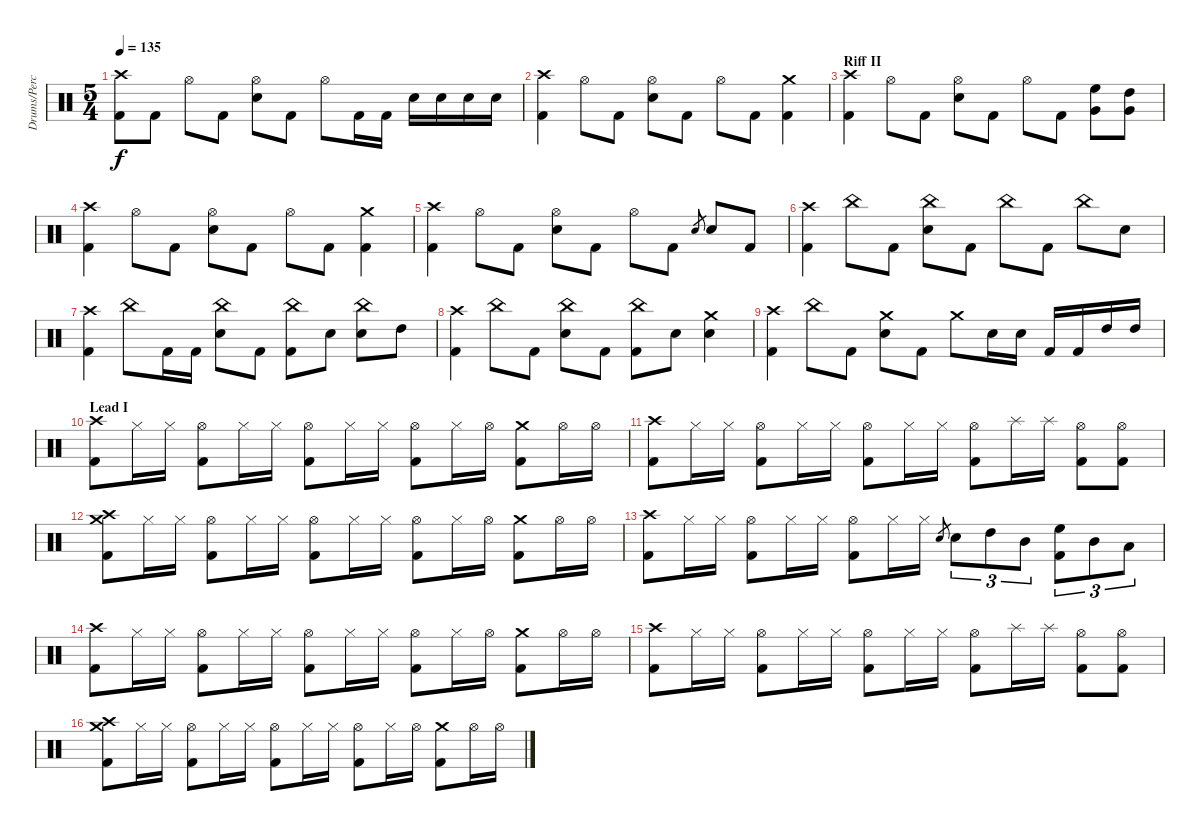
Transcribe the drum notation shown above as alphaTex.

\track ("Drums/Percussion" "Drums/Perc") {instrument percussion}
\staff {score}
\articulation defaults
\ts (5 4)
\tempo 135
\clef neutral
\ks c
("Crash high (hit)" "Kick (hit) 2").8{dy f} "Kick (hit) 2".8 "Hi-Hat (open)".8 "Kick (hit) 2".8 ("Hi-Hat (open)" "Snare (hit) 2").8 "Kick (hit) 2".8 "Hi-Hat (open)".8 "Kick (hit) 2".16 "Kick (hit) 2".16 "Snare (hit) 2".16 "Snare (hit) 2".16 "Snare (hit) 2".16 "Snare (hit) 2".16 |
("Crash high (hit)" "Kick (hit) 2").4 "Hi-Hat (open)".8 "Kick (hit) 2".8 ("Hi-Hat (open)" "Snare (hit) 2").8 "Kick (hit) 2".8 "Hi-Hat (open)".8 "Kick (hit) 2".8 ("Crash medium (hit)" "Kick (hit) 2").4 |
\section ("" "Riff II")
("Crash high (hit)" "Kick (hit) 2").4 "Hi-Hat (open)".8 "Kick (hit) 2".8 ("Hi-Hat (open)" "Snare (hit) 2").8 "Kick (hit) 2".8 "Hi-Hat (open)".8 "Kick (hit) 2".8 ("High Floor Tom (hit)" "Very Low Tom (hit)").8 ("High Tom (hit)" "Very Low Tom (hit)").8 |
("Crash high (hit)" "Kick (hit) 2").4 "Hi-Hat (open)".8 "Kick (hit) 2".8 ("Hi-Hat (open)" "Snare (hit) 2").8 "Kick (hit) 2".8 "Hi-Hat (open)".8 "Kick (hit) 2".8 ("Crash medium (hit)" "Kick (hit) 2").4 |
("Crash high (hit)" "Kick (hit) 2").4 "Hi-Hat (open)".8 "Kick (hit) 2".8 ("Hi-Hat (open)" "Snare (hit) 2").8 "Kick (hit) 2".8 "Hi-Hat (open)".8 "Kick (hit) 2".8 "Snare (hit) 2".8{gr} "Snare (hit) 2".8 "Kick (hit) 2".8 |
("Crash high (hit)" "Kick (hit) 2").4 "China (hit)".8 "Kick (hit) 2".8 ("China (hit)" "Snare (hit) 2").8 "Kick (hit) 2".8 "China (hit)".8 "Kick (hit) 2".8 "China (hit)".8 "Snare (hit) 2".8 |
("Crash high (hit)" "Kick (hit) 2").4 "China (hit)".8 "Kick (hit) 2".16 "Kick (hit) 2".16 ("China (hit)" "Snare (hit) 2").8 "Kick (hit) 2".8 ("China (hit)" "Kick (hit) 2").8 "Snare (hit) 2".8 ("China (hit)" "Snare (hit) 2").8 "High Tom (hit)".8 |
("Crash high (hit)" "Kick (hit) 2").4 "China (hit)".8 "Kick (hit) 2".8 ("China (hit)" "Snare (hit) 2").8 "Kick (hit) 2".8 ("China (hit)" "Kick (hit) 2").8 "Snare (hit) 2".8 ("Crash medium (hit)" "Snare (hit) 2").4 |
("Crash high (hit)" "Kick (hit) 2").4 "China (hit)".8 "Kick (hit) 2".8 ("Crash medium (hit)" "Snare (hit) 2").8 "Kick (hit) 2".8 "Crash medium (hit)".8 "Snare (hit) 2".16 "Snare (hit) 2".16 "Kick (hit) 2".16 "Kick (hit) 2".16 "High Tom (hit)".16 "High Tom (hit)".16 |
\section ("" "Lead I")
("Crash high (hit)" "Kick (hit) 2").8 "Hi-Hat (closed)".16 "Hi-Hat (closed)".16 ("Hi-Hat (open)" "Kick (hit) 2").8 "Hi-Hat (closed)".16 "Hi-Hat (closed)".16 ("Hi-Hat (open)" "Kick (hit) 2").8 "Hi-Hat (closed)".16 "Hi-Hat (closed)".16 ("Hi-Hat (open)" "Kick (hit) 2").8 "Hi-Hat (closed)".16 "Hi-Hat (open)".16 ("Crash medium (hit)" "Kick (hit) 2").8 "Hi-Hat (open)".16 "Hi-Hat (open)".16 |
("Crash high (hit)" "Kick (hit) 2").8 "Hi-Hat (closed)".16 "Hi-Hat (closed)".16 ("Hi-Hat (open)" "Kick (hit) 2").8 "Hi-Hat (closed)".16 "Hi-Hat (closed)".16 ("Hi-Hat (open)" "Kick (hit) 2").8 "Hi-Hat (closed)".16 "Hi-Hat (closed)".16 ("Hi-Hat (open)" "Kick (hit) 2").8 "Splash (hit)".16 "Splash (hit)".16 ("Hi-Hat (open)" "Kick (hit) 2").8 ("Hi-Hat (open)" "Kick (hit) 2").8 |
("Crash medium (hit)" "Crash high (hit)" "Kick (hit) 2").8 "Hi-Hat (closed)".16 "Hi-Hat (closed)".16 ("Hi-Hat (open)" "Kick (hit) 2").8 "Hi-Hat (closed)".16 "Hi-Hat (closed)".16 ("Hi-Hat (open)" "Kick (hit) 2").8 "Hi-Hat (closed)".16 "Hi-Hat (closed)".16 ("Hi-Hat (open)" "Kick (hit) 2").8 "Hi-Hat (closed)".16 "Hi-Hat (open)".16 ("Crash medium (hit)" "Kick (hit) 2").8 "Hi-Hat (open)".16 "Hi-Hat (open)".16 |
("Crash high (hit)" "Kick (hit) 2").8 "Hi-Hat (closed)".16 "Hi-Hat (closed)".16 ("Hi-Hat (open)" "Kick (hit) 2").8 "Hi-Hat (closed)".16 "Hi-Hat (closed)".16 ("Hi-Hat (open)" "Kick (hit) 2").8 "Hi-Hat (closed)".16 "Hi-Hat (closed)".16 "Snare (hit) 2".8{gr} "Snare (hit) 2".8{tu (3 2)} "High Tom (hit)".8{tu (3 2)} "Mid Tom (hit)".8{tu (3 2)} ("High Floor Tom (hit)" "Kick (hit) 2").8{tu (3 2)} "Mid Tom (hit)".8{tu (3 2)} "Low Tom (hit)".8{tu (3 2)} |
("Crash high (hit)" "Kick (hit) 2").8 "Hi-Hat (closed)".16 "Hi-Hat (closed)".16 ("Hi-Hat (open)" "Kick (hit) 2").8 "Hi-Hat (closed)".16 "Hi-Hat (closed)".16 ("Hi-Hat (open)" "Kick (hit) 2").8 "Hi-Hat (closed)".16 "Hi-Hat (closed)".16 ("Hi-Hat (open)" "Kick (hit) 2").8 "Hi-Hat (closed)".16 "Hi-Hat (open)".16 ("Crash medium (hit)" "Kick (hit) 2").8 "Hi-Hat (open)".16 "Hi-Hat (open)".16 |
("Crash high (hit)" "Kick (hit) 2").8 "Hi-Hat (closed)".16 "Hi-Hat (closed)".16 ("Hi-Hat (open)" "Kick (hit) 2").8 "Hi-Hat (closed)".16 "Hi-Hat (closed)".16 ("Hi-Hat (open)" "Kick (hit) 2").8 "Hi-Hat (closed)".16 "Hi-Hat (closed)".16 ("Hi-Hat (open)" "Kick (hit) 2").8 "Splash (hit)".16 "Splash (hit)".16 ("Hi-Hat (open)" "Kick (hit) 2").8 ("Hi-Hat (open)" "Kick (hit) 2").8 |
("Crash medium (hit)" "Crash high (hit)" "Kick (hit) 2").8 "Hi-Hat (closed)".16 "Hi-Hat (closed)".16 ("Hi-Hat (open)" "Kick (hit) 2").8 "Hi-Hat (closed)".16 "Hi-Hat (closed)".16 ("Hi-Hat (open)" "Kick (hit) 2").8 "Hi-Hat (closed)".16 "Hi-Hat (closed)".16 ("Hi-Hat (open)" "Kick (hit) 2").8 "Hi-Hat (closed)".16 "Hi-Hat (open)".16 ("Crash medium (hit)" "Kick (hit) 2").8 "Hi-Hat (open)".16 "Hi-Hat (open)".16
